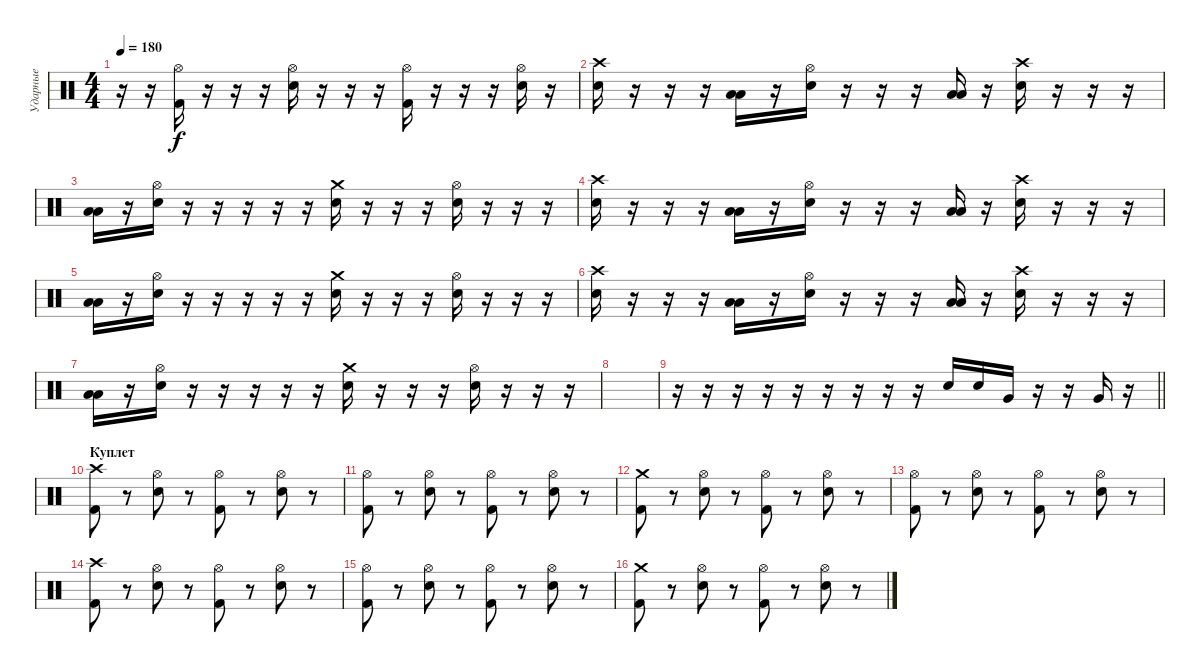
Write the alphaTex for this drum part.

\track ("Ударные" "Ударные") {instrument percussion}
\staff {score}
\articulation defaults
\ts (4 4)
\tempo 180
\clef neutral
\ks c
r.16{dy f} r.16 ("Hi-Hat (open)" "Kick (hit) 2").16 r.16 r.16 r.16 ("Hi-Hat (open)" "Electric Snare (hit)").16 r.16 r.16 r.16 ("Hi-Hat (open)" "Kick (hit) 2").16 r.16 r.16 r.16 ("Hi-Hat (open)" "Electric Snare (hit)").16 r.16 |
("Crash high (hit)" "Electric Snare (hit)").16 r.16 r.16 r.16 ("Low Tom (hit)" "Low Floor Tom (hit)").16 r.16 ("Hi-Hat (open)" "Electric Snare (hit)").16 r.16 r.16 r.16 ("Low Tom (hit)" "Low Floor Tom (hit)").16 r.16 ("Crash high (hit)" "Electric Snare (hit)").16 r.16 r.16 r.16 |
("Low Tom (hit)" "Low Floor Tom (hit)").16 r.16 ("Electric Snare (hit)" "Hi-Hat (open)").16 r.16 r.16 r.16 r.16 r.16 ("Electric Snare (hit)" "Crash medium (hit)").16 r.16 r.16 r.16 ("Electric Snare (hit)" "Hi-Hat (open)").16 r.16 r.16 r.16 |
("Crash high (hit)" "Electric Snare (hit)").16 r.16 r.16 r.16 ("Low Tom (hit)" "Low Floor Tom (hit)").16 r.16 ("Hi-Hat (open)" "Electric Snare (hit)").16 r.16 r.16 r.16 ("Low Tom (hit)" "Low Floor Tom (hit)").16 r.16 ("Crash high (hit)" "Electric Snare (hit)").16 r.16 r.16 r.16 |
("Low Tom (hit)" "Low Floor Tom (hit)").16 r.16 ("Electric Snare (hit)" "Hi-Hat (open)").16 r.16 r.16 r.16 r.16 r.16 ("Electric Snare (hit)" "Crash medium (hit)").16 r.16 r.16 r.16 ("Electric Snare (hit)" "Hi-Hat (open)").16 r.16 r.16 r.16 |
("Crash high (hit)" "Electric Snare (hit)").16 r.16 r.16 r.16 ("Low Tom (hit)" "Low Floor Tom (hit)").16 r.16 ("Hi-Hat (open)" "Electric Snare (hit)").16 r.16 r.16 r.16 ("Low Tom (hit)" "Low Floor Tom (hit)").16 r.16 ("Crash high (hit)" "Electric Snare (hit)").16 r.16 r.16 r.16 |
("Low Tom (hit)" "Low Floor Tom (hit)").16 r.16 ("Electric Snare (hit)" "Hi-Hat (open)").16 r.16 r.16 r.16 r.16 r.16 ("Electric Snare (hit)" "Crash medium (hit)").16 r.16 r.16 r.16 ("Electric Snare (hit)" "Hi-Hat (open)").16 r.16 r.16 r.16 |
|
\barLineRight lightlight
r.16 r.16 r.16 r.16 r.16 r.16 r.16 r.16 r.16 "Electric Snare (hit)".16 "Electric Snare (hit)".16 "Very Low Tom (hit)".16 r.16 r.16 "Very Low Tom (hit)".16 r.16 |
\section ("" "Куплет")
("Crash high (hit)" "Kick (hit) 2").8 r.8 ("Hi-Hat (open)" "Electric Snare (hit)").8 r.8 ("Hi-Hat (open)" "Kick (hit) 2").8 r.8 ("Hi-Hat (open)" "Electric Snare (hit)").8 r.8 |
("Hi-Hat (open)" "Kick (hit) 2").8 r.8 ("Hi-Hat (open)" "Electric Snare (hit)").8 r.8 ("Hi-Hat (open)" "Kick (hit) 2").8 r.8 ("Hi-Hat (open)" "Electric Snare (hit)").8 r.8 |
("Crash medium (hit)" "Kick (hit) 2").8 r.8 ("Hi-Hat (open)" "Electric Snare (hit)").8 r.8 ("Hi-Hat (open)" "Kick (hit) 2").8 r.8 ("Hi-Hat (open)" "Electric Snare (hit)").8 r.8 |
("Hi-Hat (open)" "Kick (hit) 2").8 r.8 ("Hi-Hat (open)" "Electric Snare (hit)").8 r.8 ("Hi-Hat (open)" "Kick (hit) 2").8 r.8 ("Hi-Hat (open)" "Electric Snare (hit)").8 r.8 |
("Crash high (hit)" "Kick (hit) 2").8 r.8 ("Hi-Hat (open)" "Electric Snare (hit)").8 r.8 ("Hi-Hat (open)" "Kick (hit) 2").8 r.8 ("Hi-Hat (open)" "Electric Snare (hit)").8 r.8 |
("Hi-Hat (open)" "Kick (hit) 2").8 r.8 ("Hi-Hat (open)" "Electric Snare (hit)").8 r.8 ("Hi-Hat (open)" "Kick (hit) 2").8 r.8 ("Hi-Hat (open)" "Electric Snare (hit)").8 r.8 |
("Crash medium (hit)" "Kick (hit) 2").8 r.8 ("Hi-Hat (open)" "Electric Snare (hit)").8 r.8 ("Hi-Hat (open)" "Kick (hit) 2").8 r.8 ("Hi-Hat (open)" "Electric Snare (hit)").8 r.8
